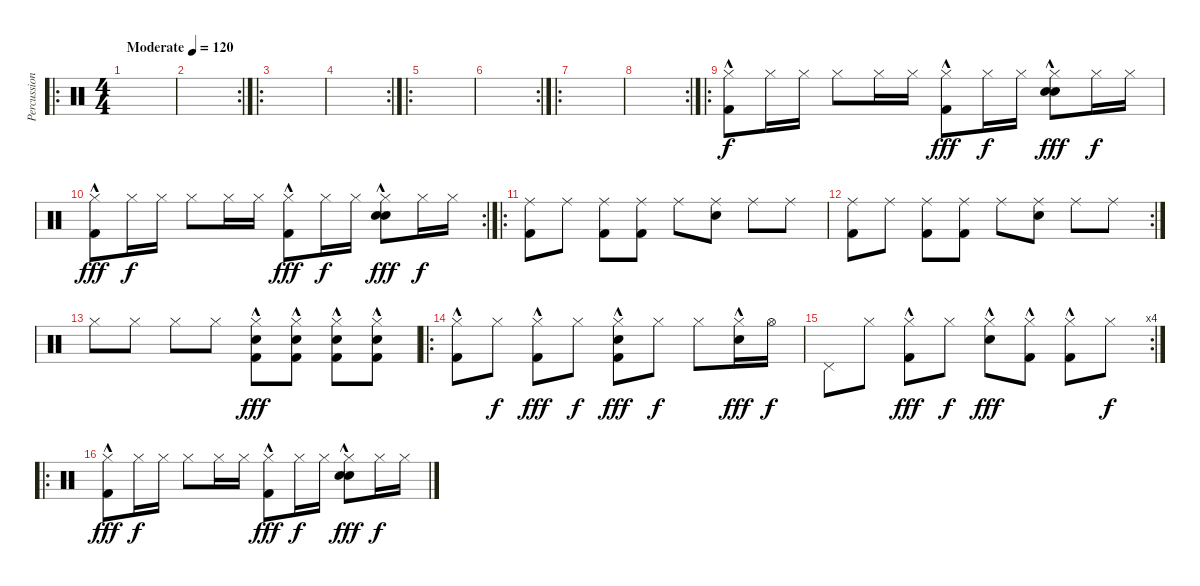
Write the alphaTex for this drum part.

\track ("Percussion" "Percussion") {instrument percussion}
\staff {score}
\articulation defaults
\ro
\ts (4 4)
\tempo (120 "Moderate")
\clef neutral
\ks c
|
\rc 2
|
\ro
|
\rc 2
|
\ro
|
\rc 2
|
\ro
|
\rc 2
|
\ro
("Hi-Hat (closed)" "Kick (hit) 2"{hac}).8 "Hi-Hat (closed)".16{dy f} "Hi-Hat (closed)".16 "Hi-Hat (closed)".8 "Hi-Hat (closed)".16 "Hi-Hat (closed)".16 ("Hi-Hat (closed)" "Kick (hit) 2"{hac}).8{dy fff} "Hi-Hat (closed)".16{dy f} "Hi-Hat (closed)".16 ("Hi-Hat (closed)" "Hand Clap (hit)"{hac} "Snare (hit) 2").8{dy fff} "Hi-Hat (closed)".16{dy f} "Hi-Hat (closed)".16 |
\rc 2
("Hi-Hat (closed)" "Kick (hit) 2"{hac}).8{dy fff} "Hi-Hat (closed)".16{dy f} "Hi-Hat (closed)".16 "Hi-Hat (closed)".8 "Hi-Hat (closed)".16 "Hi-Hat (closed)".16 ("Hi-Hat (closed)" "Kick (hit) 2"{hac}).8{dy fff} "Hi-Hat (closed)".16{dy f} "Hi-Hat (closed)".16 ("Hi-Hat (closed)" "Hand Clap (hit)"{hac} "Snare (hit) 2").8{dy fff} "Hi-Hat (closed)".16{dy f} "Hi-Hat (closed)".16 |
\ro
("Ride (middle)" "Kick (hit) 2").8 "Ride (middle)".8 ("Ride (middle)" "Kick (hit) 2").8 ("Ride (middle)" "Kick (hit) 2").8 "Ride (middle)".8 ("Ride (middle)" "Snare (hit) 2").8 "Ride (middle)".8 "Ride (middle)".8 |
\rc 2
("Ride (middle)" "Kick (hit) 2").8 "Ride (middle)".8 ("Ride (middle)" "Kick (hit) 2").8 ("Ride (middle)" "Kick (hit) 2").8 "Ride (middle)".8 ("Ride (middle)" "Snare (hit) 2").8 "Ride (middle)".8 "Ride (middle)".8 |
"Hi-Hat (closed)".8 "Hi-Hat (closed)".8 "Hi-Hat (closed)".8 "Hi-Hat (closed)".8 ("Hi-Hat (closed)"{hac} "Snare (hit) 2"{hac} "Kick (hit) 2"{hac}).8{dy fff} ("Hi-Hat (closed)"{hac} "Snare (hit) 2"{hac} "Kick (hit) 2"{hac}).8 ("Hi-Hat (closed)"{hac} "Snare (hit) 2"{hac} "Kick (hit) 2"{hac}).8 ("Hi-Hat (closed)"{hac} "Snare (hit) 2"{hac} "Kick (hit) 2"{hac}).8 |
\ro
("Hi-Hat (closed)" "Kick (hit) 2"{hac}).8 "Hi-Hat (closed)".8{dy f} ("Hi-Hat (closed)" "Kick (hit) 2"{hac}).8{dy fff} "Hi-Hat (closed)".8{dy f} ("Hi-Hat (closed)" "Snare (hit) 2"{hac} "Kick (hit) 2"{hac}).8{dy fff} "Hi-Hat (closed)".8{dy f} "Hi-Hat (closed)".8 ("Hi-Hat (closed)" "Snare (hit) 2"{hac}).16{dy fff} "Hi-Hat (open)".16{dy f} |
\rc 4 "Pedal Hi-Hat (hit)".8 "Hi-Hat (closed)".8
("Hi-Hat (closed)" "Kick (hit) 2"{hac}).8{dy fff} "Hi-Hat (closed)".8{dy f} ("Hi-Hat (closed)" "Snare (hit) 2"{hac}).8{dy fff} ("Hi-Hat (closed)" "Kick (hit) 2"{hac}).8 ("Hi-Hat (closed)" "Kick (hit) 2"{hac}).8 "Hi-Hat (closed)".8{dy f} |
\ro
("Hi-Hat (closed)" "Kick (hit) 2"{hac}).8{dy fff} "Hi-Hat (closed)".16{dy f} "Hi-Hat (closed)".16 "Hi-Hat (closed)".8 "Hi-Hat (closed)".16 "Hi-Hat (closed)".16 ("Hi-Hat (closed)" "Kick (hit) 2"{hac}).8{dy fff} "Hi-Hat (closed)".16{dy f} "Hi-Hat (closed)".16 ("Hi-Hat (closed)" "Hand Clap (hit)"{hac} "Snare (hit) 2").8{dy fff} "Hi-Hat (closed)".16{dy f} "Hi-Hat (closed)".16
